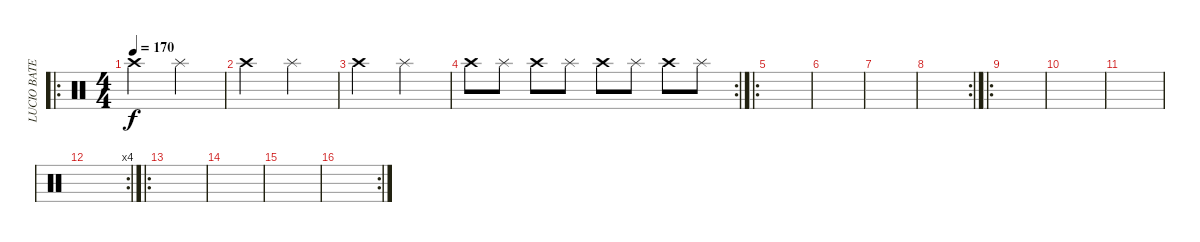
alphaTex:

\track ("LUCIO BATERIA" "LUCIO BATE") {instrument percussion}
\staff {score}
\articulation defaults
\ro
\ts (4 4)
\tempo 170
\clef neutral
\ks c "Crash high (hit)".2{dy f} "Splash (hit)".2
|
"Crash high (hit)".2 "Splash (hit)".2 |
"Crash high (hit)".2 "Splash (hit)".2 |
\rc 2 "Crash high (hit)".8 "Splash (hit)".8 "Crash high (hit)".8 "Splash (hit)".8 "Crash high (hit)".8 "Splash (hit)".8 "Crash high (hit)".8 "Splash (hit)".8
|
\ro
|
|
|
\rc 2
|
\ro
|
|
|
\rc 4
|
\ro
|
|
|
\rc 2
